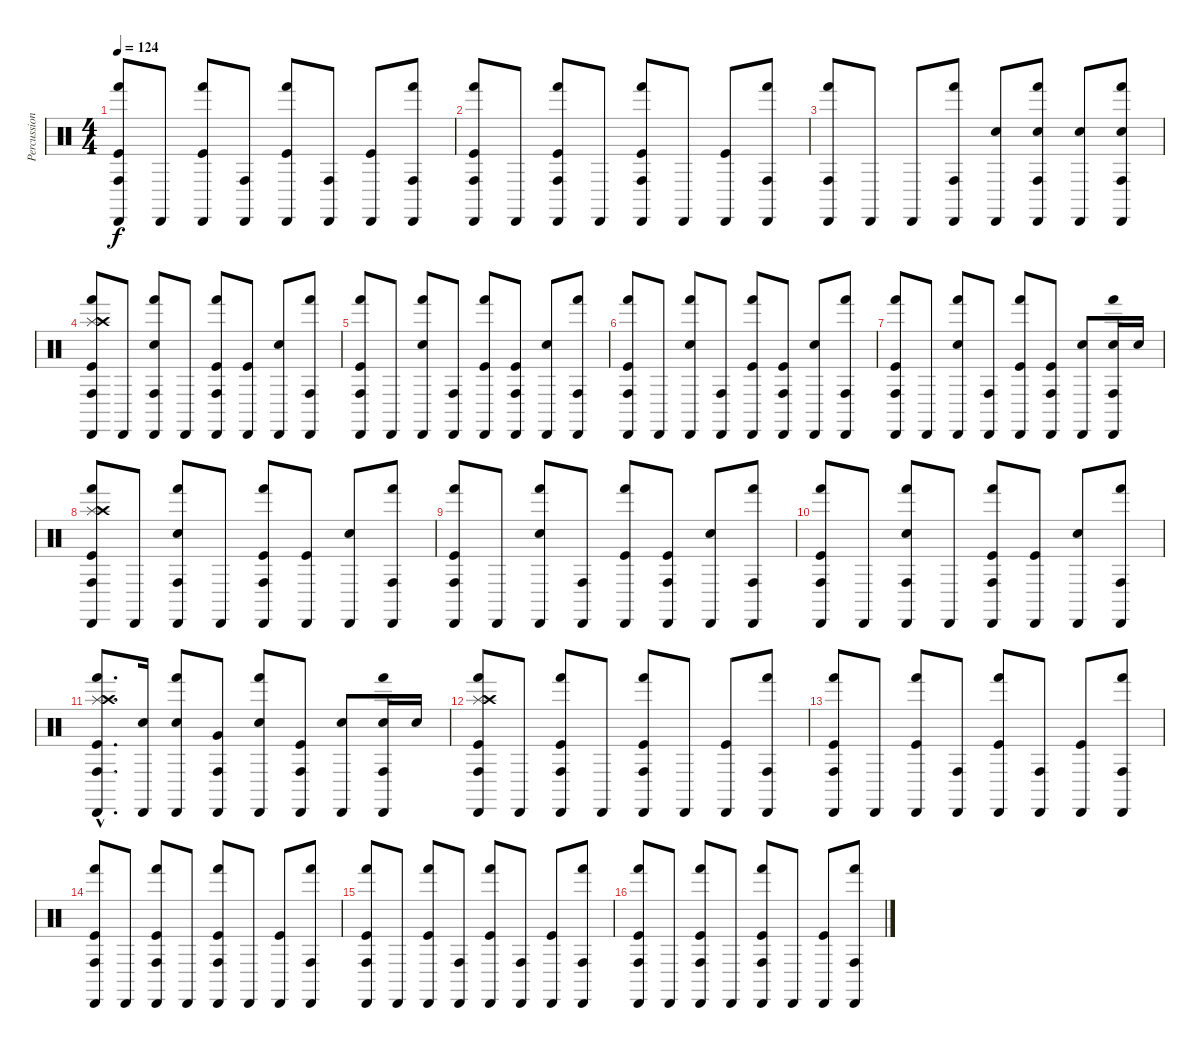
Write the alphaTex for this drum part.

\track ("Percussion" "Percussion") {instrument percussion}
\staff {score}
\articulation defaults
\ts (4 4)
\tempo 124
\clef neutral
\ks c
("Cabasa (hit)" "Kick (hit)" "Hand (hit)" "Conga high (hit)").8{dy f} "Cabasa (hit)".8 ("Cabasa (hit)" "Kick (hit)" "Hand (hit)").8 ("Cabasa (hit)" "Conga high (hit)").8 ("Cabasa (hit)" "Kick (hit)" "Hand (hit)").8 ("Cabasa (hit)" "Conga high (hit)").8 ("Cabasa (hit)" "Kick (hit)").8 ("Cabasa (hit)" "Hand (hit)" "Conga high (hit)").8 |
("Cabasa (hit)" "Kick (hit)" "Hand (hit)" "Conga high (hit)").8 "Cabasa (hit)".8 ("Cabasa (hit)" "Kick (hit)" "Hand (hit)" "Conga high (hit)").8 "Cabasa (hit)".8 ("Cabasa (hit)" "Kick (hit)" "Hand (hit)" "Conga high (hit)").8 "Cabasa (hit)".8 ("Cabasa (hit)" "Kick (hit)").8 ("Cabasa (hit)" "Hand (hit)" "Conga high (hit)").8 |
("Cabasa (hit)" "Hand (hit)" "Conga high (hit)").8 "Cabasa (hit)".8 "Cabasa (hit)".8 ("Cabasa (hit)" "Hand (hit)" "Conga high (hit)").8 ("Cabasa (hit)" "Electric Snare (hit)").8 ("Cabasa (hit)" "Electric Snare (hit)" "Hand (hit)" "Conga high (hit)").8 ("Cabasa (hit)" "Electric Snare (hit)").8 ("Cabasa (hit)" "Electric Snare (hit)" "Hand (hit)" "Conga high (hit)").8 |
("Cabasa (hit)" "Kick (hit)" "Hand (hit)" "Conga high (hit)" "Splash (hit)" "Crash high (hit)").8 "Cabasa (hit)".8 ("Cabasa (hit)" "Electric Snare (hit)" "Hand (hit)" "Conga high (hit)").8 "Cabasa (hit)".8 ("Cabasa (hit)" "Kick (hit)" "Hand (hit)" "Conga high (hit)").8 ("Cabasa (hit)" "Kick (hit)").8 ("Cabasa (hit)" "Electric Snare (hit)").8 ("Cabasa (hit)" "Hand (hit)" "Conga high (hit)").8 |
("Cabasa (hit)" "Kick (hit)" "Hand (hit)" "Conga high (hit)").8 "Cabasa (hit)".8 ("Cabasa (hit)" "Electric Snare (hit)" "Hand (hit)").8 ("Cabasa (hit)" "Conga high (hit)").8 ("Cabasa (hit)" "Kick (hit)" "Hand (hit)").8 ("Cabasa (hit)" "Kick (hit)" "Conga high (hit)").8 ("Cabasa (hit)" "Electric Snare (hit)").8 ("Cabasa (hit)" "Hand (hit)" "Conga high (hit)").8 |
("Cabasa (hit)" "Kick (hit)" "Hand (hit)" "Conga high (hit)").8 "Cabasa (hit)".8 ("Cabasa (hit)" "Electric Snare (hit)" "Hand (hit)").8 ("Cabasa (hit)" "Conga high (hit)").8 ("Cabasa (hit)" "Kick (hit)" "Hand (hit)").8 ("Cabasa (hit)" "Kick (hit)" "Conga high (hit)").8 ("Cabasa (hit)" "Electric Snare (hit)").8 ("Cabasa (hit)" "Hand (hit)" "Conga high (hit)").8 |
("Cabasa (hit)" "Kick (hit)" "Hand (hit)" "Conga high (hit)").8 "Cabasa (hit)".8 ("Cabasa (hit)" "Electric Snare (hit)" "Hand (hit)").8 ("Cabasa (hit)" "Conga high (hit)").8 ("Cabasa (hit)" "Kick (hit)" "Hand (hit)").8 ("Cabasa (hit)" "Kick (hit)" "Conga high (hit)").8 ("Cabasa (hit)" "Electric Snare (hit)").8 ("Cabasa (hit)" "Snare (hit) 2" "Hand (hit)" "Conga high (hit)").16 "Snare (hit) 2".16 |
("Cabasa (hit)" "Kick (hit)" "Hand (hit)" "Conga high (hit)" "Splash (hit)" "Crash high (hit)").8 "Cabasa (hit)".8 ("Cabasa (hit)" "Electric Snare (hit)" "Hand (hit)" "Conga high (hit)").8 "Cabasa (hit)".8 ("Cabasa (hit)" "Kick (hit)" "Hand (hit)" "Conga high (hit)").8 ("Cabasa (hit)" "Kick (hit)").8 ("Cabasa (hit)" "Electric Snare (hit)").8 ("Cabasa (hit)" "Hand (hit)" "Conga high (hit)").8 |
("Cabasa (hit)" "Kick (hit)" "Hand (hit)" "Conga high (hit)").8 "Cabasa (hit)".8 ("Cabasa (hit)" "Electric Snare (hit)" "Hand (hit)").8 ("Cabasa (hit)" "Conga high (hit)").8 ("Cabasa (hit)" "Kick (hit)" "Hand (hit)").8 ("Cabasa (hit)" "Kick (hit)" "Conga high (hit)").8 ("Cabasa (hit)" "Electric Snare (hit)").8 ("Cabasa (hit)" "Hand (hit)" "Conga high (hit)").8 |
("Cabasa (hit)" "Kick (hit)" "Hand (hit)" "Conga high (hit)").8 "Cabasa (hit)".8 ("Cabasa (hit)" "Electric Snare (hit)" "Hand (hit)" "Conga high (hit)").8 "Cabasa (hit)".8 ("Cabasa (hit)" "Kick (hit)" "Hand (hit)" "Conga high (hit)").8 ("Cabasa (hit)" "Kick (hit)").8 ("Cabasa (hit)" "Electric Snare (hit)").8 ("Cabasa (hit)" "Hand (hit)" "Conga high (hit)").8 |
("Cabasa (hit)"{hac} "Kick (hit)"{hac} "Hand (hit)"{hac} "Conga high (hit)"{hac} "Splash (hit)"{hac} "Crash high (hit)"{hac}).8{d} ("Cabasa (hit)" "Snare (hit) 2").16 ("Cabasa (hit)" "Snare (hit) 2" "Hand (hit)").8 ("Cabasa (hit)" "Very Low Tom (hit)" "Conga high (hit)").8 ("Cabasa (hit)" "Snare (hit) 2" "Hand (hit)").8 ("Cabasa (hit)" "Kick (hit)" "Conga high (hit)").8 ("Cabasa (hit)" "Snare (hit) 2").8 ("Cabasa (hit)" "Snare (hit) 2" "Hand (hit)" "Conga high (hit)").16 "Snare (hit) 2".16 |
("Cabasa (hit)" "Kick (hit)" "Hand (hit)" "Conga high (hit)" "Splash (hit)" "Crash high (hit)").8 "Cabasa (hit)".8 ("Cabasa (hit)" "Kick (hit)" "Hand (hit)" "Conga high (hit)").8 "Cabasa (hit)".8 ("Cabasa (hit)" "Kick (hit)" "Hand (hit)" "Conga high (hit)").8 "Cabasa (hit)".8 ("Cabasa (hit)" "Kick (hit)").8 ("Cabasa (hit)" "Hand (hit)" "Conga high (hit)").8 |
("Cabasa (hit)" "Kick (hit)" "Hand (hit)" "Conga high (hit)").8 "Cabasa (hit)".8 ("Cabasa (hit)" "Kick (hit)" "Hand (hit)").8 ("Cabasa (hit)" "Conga high (hit)").8 ("Cabasa (hit)" "Kick (hit)" "Hand (hit)").8 ("Cabasa (hit)" "Conga high (hit)").8 ("Cabasa (hit)" "Kick (hit)").8 ("Cabasa (hit)" "Hand (hit)" "Conga high (hit)").8 |
("Cabasa (hit)" "Kick (hit)" "Hand (hit)" "Conga high (hit)").8 "Cabasa (hit)".8 ("Cabasa (hit)" "Kick (hit)" "Hand (hit)" "Conga high (hit)").8 "Cabasa (hit)".8 ("Cabasa (hit)" "Kick (hit)" "Hand (hit)" "Conga high (hit)").8 "Cabasa (hit)".8 ("Cabasa (hit)" "Kick (hit)").8 ("Cabasa (hit)" "Hand (hit)" "Conga high (hit)").8 |
("Cabasa (hit)" "Kick (hit)" "Hand (hit)" "Conga high (hit)").8 "Cabasa (hit)".8 ("Cabasa (hit)" "Kick (hit)" "Hand (hit)").8 ("Cabasa (hit)" "Conga high (hit)").8 ("Cabasa (hit)" "Kick (hit)" "Hand (hit)").8 ("Cabasa (hit)" "Conga high (hit)").8 ("Cabasa (hit)" "Kick (hit)").8 ("Cabasa (hit)" "Hand (hit)" "Conga high (hit)").8 |
("Cabasa (hit)" "Kick (hit)" "Hand (hit)" "Conga high (hit)").8 "Cabasa (hit)".8 ("Cabasa (hit)" "Kick (hit)" "Hand (hit)" "Conga high (hit)").8 "Cabasa (hit)".8 ("Cabasa (hit)" "Kick (hit)" "Hand (hit)" "Conga high (hit)").8 "Cabasa (hit)".8 ("Cabasa (hit)" "Kick (hit)").8 ("Cabasa (hit)" "Hand (hit)" "Conga high (hit)").8
